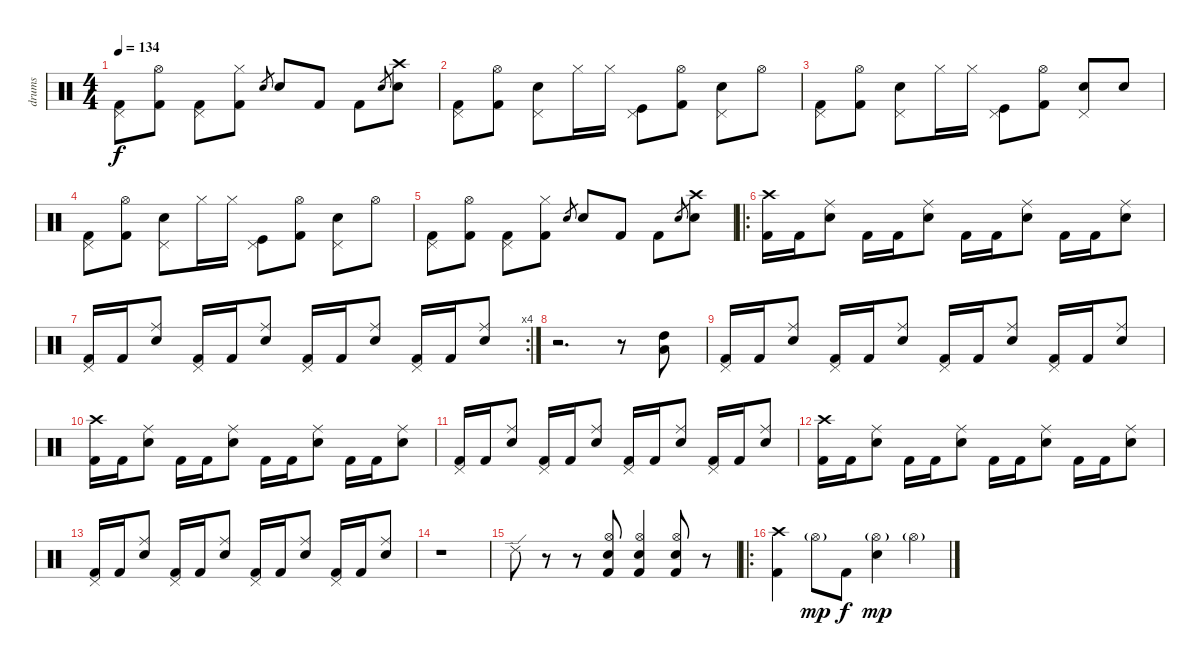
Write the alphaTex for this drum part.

\track ("drums" "drums") {instrument percussion}
\staff {score}
\articulation defaults
\ts (4 4)
\tempo 134
\clef neutral
\ks c
("Kick (hit) 2" "Pedal Hi-Hat (hit)").8{dy f} ("Kick (hit) 2" "Hi-Hat (open)").8 ("Kick (hit) 2" "Pedal Hi-Hat (hit)").8 ("Kick (hit) 2" "Hi-Hat (closed)").8 "Electric Snare (hit)".8{gr} "Electric Snare (hit)".8 "Kick (hit) 2".8 "Kick (hit) 2".8 "Electric Snare (hit)".8{gr} ("Crash high (hit)" "Electric Snare (hit)").8 |
("Kick (hit) 2" "Pedal Hi-Hat (hit)").8 ("Kick (hit) 2" "Hi-Hat (open)").8 ("Electric Snare (hit)" "Pedal Hi-Hat (hit)").8 "Hi-Hat (closed)".16 "Hi-Hat (closed)".16 ("Kick (hit)" "Pedal Hi-Hat (hit)").8 ("Kick (hit) 2" "Hi-Hat (open)").8 ("Electric Snare (hit)" "Pedal Hi-Hat (hit)").8 "Hi-Hat (open)".8 |
("Kick (hit) 2" "Pedal Hi-Hat (hit)").8 ("Kick (hit) 2" "Hi-Hat (open)").8 ("Electric Snare (hit)" "Pedal Hi-Hat (hit)").8 "Hi-Hat (closed)".16 "Hi-Hat (closed)".16 ("Kick (hit)" "Pedal Hi-Hat (hit)").8 ("Kick (hit) 2" "Hi-Hat (open)").8 ("Electric Snare (hit)" "Pedal Hi-Hat (hit)").8 "Electric Snare (hit)".8 |
("Kick (hit) 2" "Pedal Hi-Hat (hit)").8 ("Kick (hit) 2" "Hi-Hat (open)").8 ("Electric Snare (hit)" "Pedal Hi-Hat (hit)").8 "Hi-Hat (closed)".16 "Hi-Hat (closed)".16 ("Kick (hit)" "Pedal Hi-Hat (hit)").8 ("Kick (hit) 2" "Hi-Hat (open)").8 ("Electric Snare (hit)" "Pedal Hi-Hat (hit)").8 "Hi-Hat (open)".8 |
("Kick (hit) 2" "Pedal Hi-Hat (hit)").8 ("Kick (hit) 2" "Hi-Hat (open)").8 ("Kick (hit) 2" "Pedal Hi-Hat (hit)").8 ("Kick (hit) 2" "Hi-Hat (closed)").8 "Electric Snare (hit)".8{gr} "Electric Snare (hit)".8 "Kick (hit) 2".8 "Kick (hit) 2".8 "Electric Snare (hit)".8{gr} ("Crash high (hit)" "Electric Snare (hit)").8 |
\ro
("Kick (hit) 2" "Crash high (hit)").16 "Kick (hit) 2".16 ("Electric Snare (hit)" "Ride (middle)").8 "Kick (hit) 2".16 "Kick (hit) 2".16 ("Electric Snare (hit)" "Ride (middle)").8 "Kick (hit) 2".16 "Kick (hit) 2".16 ("Electric Snare (hit)" "Ride (middle)").8 "Kick (hit) 2".16 "Kick (hit) 2".16 ("Electric Snare (hit)" "Ride (middle)").8 |
\rc 4
("Kick (hit) 2" "Pedal Hi-Hat (hit)").16 "Kick (hit) 2".16 ("Electric Snare (hit)" "Ride (middle)").8 ("Kick (hit) 2" "Pedal Hi-Hat (hit)").16 "Kick (hit) 2".16 ("Electric Snare (hit)" "Ride (middle)").8 ("Kick (hit) 2" "Pedal Hi-Hat (hit)").16 "Kick (hit) 2".16 ("Electric Snare (hit)" "Ride (middle)").8 ("Kick (hit) 2" "Pedal Hi-Hat (hit)").16 "Kick (hit) 2".16 ("Electric Snare (hit)" "Ride (middle)").8 |
r.2{d} r.8 ("High Tom (hit)" "Low Tom (hit)").8 |
("Kick (hit) 2" "Pedal Hi-Hat (hit)").16 "Kick (hit) 2".16 ("Electric Snare (hit)" "Ride (middle)").8 ("Kick (hit) 2" "Pedal Hi-Hat (hit)").16 "Kick (hit) 2".16 ("Electric Snare (hit)" "Ride (middle)").8 ("Kick (hit) 2" "Pedal Hi-Hat (hit)").16 "Kick (hit) 2".16 ("Electric Snare (hit)" "Ride (middle)").8 ("Kick (hit) 2" "Pedal Hi-Hat (hit)").16 "Kick (hit) 2".16 ("Electric Snare (hit)" "Ride (middle)").8 |
("Kick (hit) 2" "Crash high (hit)").16 "Kick (hit) 2".16 ("Electric Snare (hit)" "Ride (middle)").8 "Kick (hit) 2".16 "Kick (hit) 2".16 ("Electric Snare (hit)" "Ride (middle)").8 "Kick (hit) 2".16 "Kick (hit) 2".16 ("Electric Snare (hit)" "Ride (middle)").8 "Kick (hit) 2".16 "Kick (hit) 2".16 ("Electric Snare (hit)" "Ride (middle)").8 |
("Kick (hit) 2" "Pedal Hi-Hat (hit)").16 "Kick (hit) 2".16 ("Electric Snare (hit)" "Ride (middle)").8 ("Kick (hit) 2" "Pedal Hi-Hat (hit)").16 "Kick (hit) 2".16 ("Electric Snare (hit)" "Ride (middle)").8 ("Kick (hit) 2" "Pedal Hi-Hat (hit)").16 "Kick (hit) 2".16 ("Electric Snare (hit)" "Ride (middle)").8 ("Kick (hit) 2" "Pedal Hi-Hat (hit)").16 "Kick (hit) 2".16 ("Electric Snare (hit)" "Ride (middle)").8 |
("Kick (hit) 2" "Crash high (hit)").16 "Kick (hit) 2".16 ("Electric Snare (hit)" "Ride (middle)").8 "Kick (hit) 2".16 "Kick (hit) 2".16 ("Electric Snare (hit)" "Ride (middle)").8 "Kick (hit) 2".16 "Kick (hit) 2".16 ("Electric Snare (hit)" "Ride (middle)").8 "Kick (hit) 2".16 "Kick (hit) 2".16 ("Electric Snare (hit)" "Ride (middle)").8 |
("Kick (hit) 2" "Pedal Hi-Hat (hit)").16 "Kick (hit) 2".16 ("Electric Snare (hit)" "Ride (middle)").8 ("Kick (hit) 2" "Pedal Hi-Hat (hit)").16 "Kick (hit) 2".16 ("Electric Snare (hit)" "Ride (middle)").8 ("Kick (hit) 2" "Pedal Hi-Hat (hit)").16 "Kick (hit) 2".16 ("Electric Snare (hit)" "Ride (middle)").8 ("Kick (hit) 2" "Pedal Hi-Hat (hit)").16 "Kick (hit) 2".16 ("Electric Snare (hit)" "Ride (middle)").8 |
r.1 |
"Ride (edge) 2".8 r.8 r.8 ("Kick (hit) 2" "Electric Snare (hit)" "Hi-Hat (open)").8 ("Kick (hit) 2" "Electric Snare (hit)" "Hi-Hat (open)").4 ("Kick (hit) 2" "Electric Snare (hit)" "Hi-Hat (open)").8 r.8 |
\ro
("Kick (hit) 2" "Crash high (hit)").4 "Hi-Hat (open)"{g}.8{dy mp} "Kick (hit) 2".8{dy f} ("Electric Snare (hit)" "Hi-Hat (open)"{g}).4{dy mp} "Hi-Hat (open)"{g}.4
